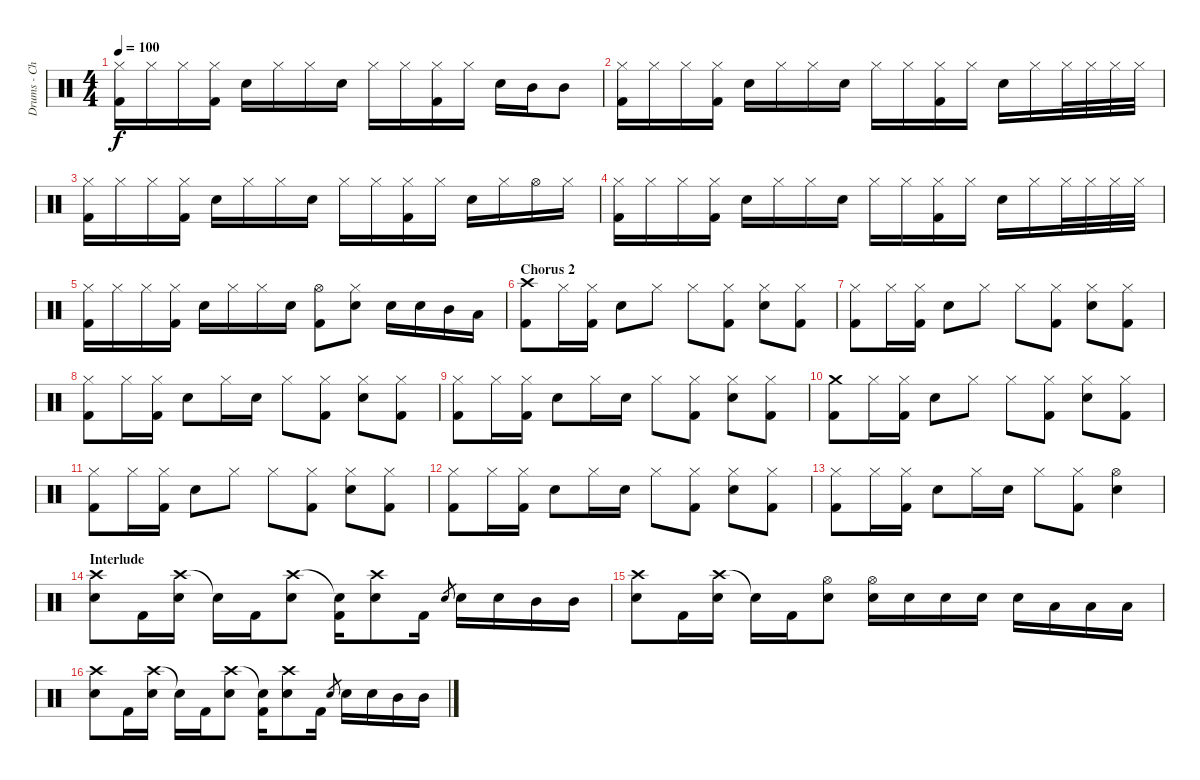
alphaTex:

\track ("Drums - Chad" "Drums - Ch") {instrument percussion}
\staff {score}
\articulation defaults
\ts (4 4)
\tempo 100
\clef neutral
\ks c
("Hi-Hat (closed)" "Kick (hit) 2").16{dy f} "Hi-Hat (closed)".16 "Hi-Hat (closed)".16 ("Hi-Hat (closed)" "Kick (hit) 2").16 "Electric Snare (hit)".16 "Hi-Hat (closed)".16 "Hi-Hat (closed)".16 "Electric Snare (hit)".16 "Hi-Hat (closed)".16 "Hi-Hat (closed)".16 ("Hi-Hat (closed)" "Kick (hit) 2").16 "Hi-Hat (closed)".16 "Electric Snare (hit)".16 "Mid Tom (hit)".16 "Mid Tom (hit)".8 |
("Hi-Hat (closed)" "Kick (hit) 2").16 "Hi-Hat (closed)".16 "Hi-Hat (closed)".16 ("Hi-Hat (closed)" "Kick (hit) 2").16 "Electric Snare (hit)".16 "Hi-Hat (closed)".16 "Hi-Hat (closed)".16 "Electric Snare (hit)".16 "Hi-Hat (closed)".16 "Hi-Hat (closed)".16 ("Hi-Hat (closed)" "Kick (hit) 2").16 "Hi-Hat (closed)".16 "Electric Snare (hit)".16 "Hi-Hat (closed)".16 "Hi-Hat (closed)".32 "Hi-Hat (closed)".32 "Hi-Hat (closed)".32 "Hi-Hat (closed)".32 |
("Hi-Hat (closed)" "Kick (hit) 2").16 "Hi-Hat (closed)".16 "Hi-Hat (closed)".16 ("Hi-Hat (closed)" "Kick (hit) 2").16 "Electric Snare (hit)".16 "Hi-Hat (closed)".16 "Hi-Hat (closed)".16 "Electric Snare (hit)".16 "Hi-Hat (closed)".16 "Hi-Hat (closed)".16 ("Hi-Hat (closed)" "Kick (hit) 2").16 "Hi-Hat (closed)".16 "Electric Snare (hit)".16 "Hi-Hat (closed)".16 "Hi-Hat (open)".16 "Hi-Hat (closed)".16 |
("Hi-Hat (closed)" "Kick (hit) 2").16 "Hi-Hat (closed)".16 "Hi-Hat (closed)".16 ("Hi-Hat (closed)" "Kick (hit) 2").16 "Electric Snare (hit)".16 "Hi-Hat (closed)".16 "Hi-Hat (closed)".16 "Electric Snare (hit)".16 "Hi-Hat (closed)".16 "Hi-Hat (closed)".16 ("Hi-Hat (closed)" "Kick (hit) 2").16 "Hi-Hat (closed)".16 "Electric Snare (hit)".16 "Hi-Hat (closed)".16 "Hi-Hat (closed)".32 "Hi-Hat (closed)".32 "Hi-Hat (closed)".32 "Hi-Hat (closed)".32 |
("Hi-Hat (closed)" "Kick (hit) 2").16 "Hi-Hat (closed)".16 "Hi-Hat (closed)".16 ("Hi-Hat (closed)" "Kick (hit) 2").16 "Electric Snare (hit)".16 "Hi-Hat (closed)".16 "Hi-Hat (closed)".16 "Electric Snare (hit)".16 ("Hi-Hat (open)" "Kick (hit) 2").8 ("Hi-Hat (closed)" "Electric Snare (hit)").8 "Electric Snare (hit)".16 "Electric Snare (hit)".16 "Mid Tom (hit)".16 "Low Tom (hit)".16 |
\section ("" "Chorus 2")
("Crash high (hit)" "Kick (hit) 2").8 "Hi-Hat (closed)".16 ("Hi-Hat (closed)" "Kick (hit) 2").16 "Electric Snare (hit)".8 "Hi-Hat (closed)".8 "Hi-Hat (closed)".8 ("Hi-Hat (closed)" "Kick (hit) 2").8 ("Hi-Hat (closed)" "Electric Snare (hit)").8 ("Hi-Hat (closed)" "Kick (hit) 2").8 |
("Hi-Hat (closed)" "Kick (hit) 2").8 "Hi-Hat (closed)".16 ("Hi-Hat (closed)" "Kick (hit) 2").16 "Electric Snare (hit)".8 "Hi-Hat (closed)".8 "Hi-Hat (closed)".8 ("Hi-Hat (closed)" "Kick (hit) 2").8 ("Hi-Hat (closed)" "Electric Snare (hit)").8 ("Hi-Hat (closed)" "Kick (hit) 2").8 |
("Hi-Hat (closed)" "Kick (hit) 2").8 "Hi-Hat (closed)".16 ("Hi-Hat (closed)" "Kick (hit) 2").16 "Electric Snare (hit)".8 "Hi-Hat (closed)".16 "Electric Snare (hit)".16 "Hi-Hat (closed)".8 ("Hi-Hat (closed)" "Kick (hit) 2").8 ("Hi-Hat (closed)" "Electric Snare (hit)").8 ("Hi-Hat (closed)" "Kick (hit) 2").8 |
("Hi-Hat (closed)" "Kick (hit) 2").8 "Hi-Hat (closed)".16 ("Hi-Hat (closed)" "Kick (hit) 2").16 "Electric Snare (hit)".8 "Hi-Hat (closed)".16 "Electric Snare (hit)".16 "Hi-Hat (closed)".8 ("Hi-Hat (closed)" "Kick (hit) 2").8 ("Hi-Hat (closed)" "Electric Snare (hit)").8 ("Hi-Hat (closed)" "Kick (hit) 2").8 |
("Crash medium (hit)" "Kick (hit) 2").8 "Hi-Hat (closed)".16 ("Hi-Hat (closed)" "Kick (hit) 2").16 "Electric Snare (hit)".8 "Hi-Hat (closed)".8 "Hi-Hat (closed)".8 ("Hi-Hat (closed)" "Kick (hit) 2").8 ("Hi-Hat (closed)" "Electric Snare (hit)").8 ("Hi-Hat (closed)" "Kick (hit) 2").8 |
("Hi-Hat (closed)" "Kick (hit) 2").8 "Hi-Hat (closed)".16 ("Hi-Hat (closed)" "Kick (hit) 2").16 "Electric Snare (hit)".8 "Hi-Hat (closed)".8 "Hi-Hat (closed)".8 ("Hi-Hat (closed)" "Kick (hit) 2").8 ("Hi-Hat (closed)" "Electric Snare (hit)").8 ("Hi-Hat (closed)" "Kick (hit) 2").8 |
("Hi-Hat (closed)" "Kick (hit) 2").8 "Hi-Hat (closed)".16 ("Hi-Hat (closed)" "Kick (hit) 2").16 "Electric Snare (hit)".8 "Hi-Hat (closed)".16 "Electric Snare (hit)".16 "Hi-Hat (closed)".8 ("Hi-Hat (closed)" "Kick (hit) 2").8 ("Hi-Hat (closed)" "Electric Snare (hit)").8 ("Hi-Hat (closed)" "Kick (hit) 2").8 |
("Hi-Hat (closed)" "Kick (hit) 2").8 "Hi-Hat (closed)".16 ("Hi-Hat (closed)" "Kick (hit) 2").16 "Electric Snare (hit)".8 "Hi-Hat (closed)".16 "Electric Snare (hit)".16 "Hi-Hat (closed)".8 ("Hi-Hat (closed)" "Kick (hit) 2").8 ("Hi-Hat (open)" "Electric Snare (hit)").4 |
\section ("" "Interlude")
("Crash high (hit)" "Electric Snare (hit)").8 "Kick (hit) 2".16 ("Crash high (hit)" "Electric Snare (hit)").16 "Snare (hit)"{t}.16 "Kick (hit) 2".16 ("Crash high (hit)" "Electric Snare (hit)").8 ("Snare (hit)"{t} "Kick (hit) 2").16 ("Crash high (hit)" "Electric Snare (hit)").8 "Kick (hit) 2".16 "Electric Snare (hit)".8{gr} "Electric Snare (hit)".16 "Electric Snare (hit)".16 "Mid Tom (hit)".16 "Mid Tom (hit)".16 |
("Crash high (hit)" "Electric Snare (hit)").8 "Kick (hit) 2".16 ("Crash high (hit)" "Electric Snare (hit)").16 "Snare (hit)"{t}.16 "Kick (hit) 2".16 ("Hi-Hat (open)" "Electric Snare (hit)").8 ("Hi-Hat (open)" "Electric Snare (hit)").16 "Electric Snare (hit)".16 "Electric Snare (hit)".16 "Electric Snare (hit)".16 "Electric Snare (hit)".16 "Low Tom (hit)".16 "Low Tom (hit)".16 "Low Tom (hit)".16 |
("Crash high (hit)" "Electric Snare (hit)").8 "Kick (hit) 2".16 ("Crash high (hit)" "Electric Snare (hit)").16 "Snare (hit)"{t}.16 "Kick (hit) 2".16 ("Crash high (hit)" "Electric Snare (hit)").8 ("Snare (hit)"{t} "Kick (hit) 2").16 ("Crash high (hit)" "Electric Snare (hit)").8 "Kick (hit) 2".16 "Electric Snare (hit)".8{gr} "Electric Snare (hit)".16 "Electric Snare (hit)".16 "Mid Tom (hit)".16 "Mid Tom (hit)".16
